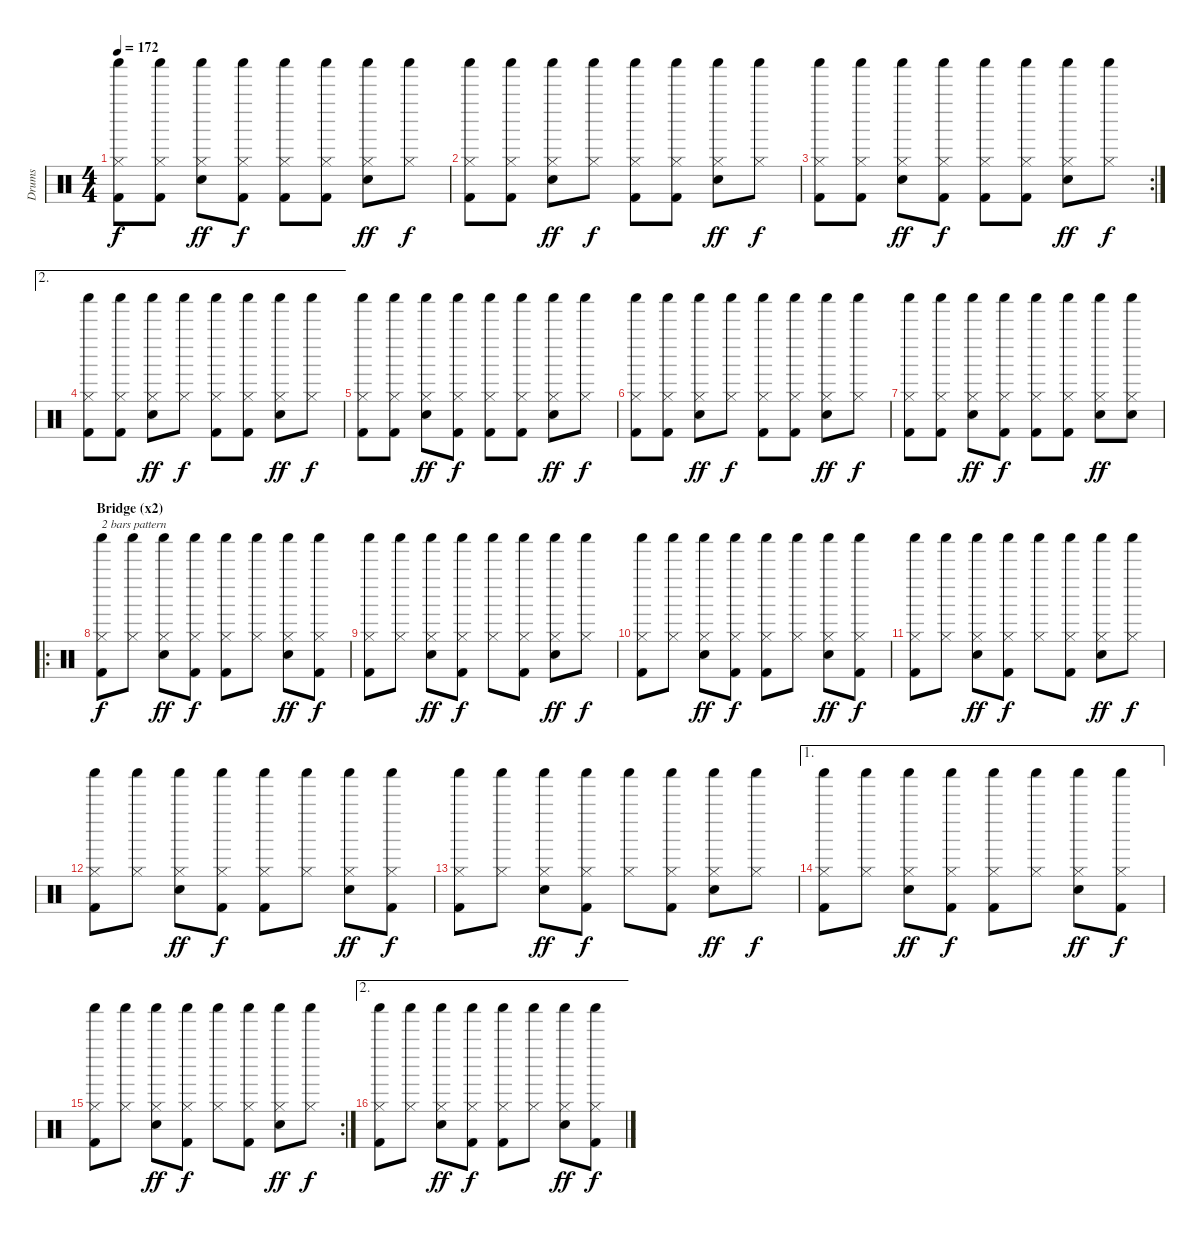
\track ("Drums" "Drums") {instrument percussion}
\staff {score}
\articulation defaults
\ts (4 4)
\tempo 172
\clef neutral
\ks c
("Hi-Hat (closed)" "Shaker (hit)" "Kick (hit) 2").8{dy f} ("Hi-Hat (closed)" "Shaker (hit)" "Kick (hit) 2").8 ("Hi-Hat (closed)" "Shaker (hit)" "Electric Snare (hit)").8{dy ff} ("Hi-Hat (closed)" "Shaker (hit)" "Kick (hit) 2").8{dy f} ("Hi-Hat (closed)" "Shaker (hit)" "Kick (hit) 2").8 ("Hi-Hat (closed)" "Shaker (hit)" "Kick (hit) 2").8 ("Hi-Hat (closed)" "Shaker (hit)" "Electric Snare (hit)").8{dy ff} ("Hi-Hat (closed)" "Shaker (hit)").8{dy f} |
("Hi-Hat (closed)" "Shaker (hit)" "Kick (hit) 2").8 ("Hi-Hat (closed)" "Shaker (hit)" "Kick (hit) 2").8 ("Hi-Hat (closed)" "Shaker (hit)" "Electric Snare (hit)").8{dy ff} ("Hi-Hat (closed)" "Shaker (hit)").8{dy f} ("Hi-Hat (closed)" "Shaker (hit)" "Kick (hit) 2").8 ("Hi-Hat (closed)" "Shaker (hit)" "Kick (hit) 2").8 ("Hi-Hat (closed)" "Shaker (hit)" "Electric Snare (hit)").8{dy ff} ("Hi-Hat (closed)" "Shaker (hit)").8{dy f} |
\rc 2
("Hi-Hat (closed)" "Shaker (hit)" "Kick (hit) 2").8 ("Hi-Hat (closed)" "Shaker (hit)" "Kick (hit) 2").8 ("Hi-Hat (closed)" "Shaker (hit)" "Electric Snare (hit)").8{dy ff} ("Hi-Hat (closed)" "Shaker (hit)" "Kick (hit) 2").8{dy f} ("Hi-Hat (closed)" "Shaker (hit)" "Kick (hit) 2").8 ("Hi-Hat (closed)" "Shaker (hit)" "Kick (hit) 2").8 ("Hi-Hat (closed)" "Shaker (hit)" "Electric Snare (hit)").8{dy ff} ("Hi-Hat (closed)" "Shaker (hit)").8{dy f} |
\ae 2
("Hi-Hat (closed)" "Shaker (hit)" "Kick (hit) 2").8 ("Hi-Hat (closed)" "Shaker (hit)" "Kick (hit) 2").8 ("Hi-Hat (closed)" "Shaker (hit)" "Electric Snare (hit)").8{dy ff} ("Hi-Hat (closed)" "Shaker (hit)").8{dy f} ("Hi-Hat (closed)" "Shaker (hit)" "Kick (hit) 2").8 ("Hi-Hat (closed)" "Shaker (hit)" "Kick (hit) 2").8 ("Hi-Hat (closed)" "Shaker (hit)" "Electric Snare (hit)").8{dy ff} ("Hi-Hat (closed)" "Shaker (hit)").8{dy f} |
("Hi-Hat (closed)" "Shaker (hit)" "Kick (hit) 2").8 ("Hi-Hat (closed)" "Shaker (hit)" "Kick (hit) 2").8 ("Hi-Hat (closed)" "Shaker (hit)" "Electric Snare (hit)").8{dy ff} ("Hi-Hat (closed)" "Shaker (hit)" "Kick (hit) 2").8{dy f} ("Hi-Hat (closed)" "Shaker (hit)" "Kick (hit) 2").8 ("Hi-Hat (closed)" "Shaker (hit)" "Kick (hit) 2").8 ("Hi-Hat (closed)" "Shaker (hit)" "Electric Snare (hit)").8{dy ff} ("Hi-Hat (closed)" "Shaker (hit)").8{dy f} |
("Hi-Hat (closed)" "Shaker (hit)" "Kick (hit) 2").8 ("Hi-Hat (closed)" "Shaker (hit)" "Kick (hit) 2").8 ("Hi-Hat (closed)" "Shaker (hit)" "Electric Snare (hit)").8{dy ff} ("Hi-Hat (closed)" "Shaker (hit)").8{dy f} ("Hi-Hat (closed)" "Shaker (hit)" "Kick (hit) 2").8 ("Hi-Hat (closed)" "Shaker (hit)" "Kick (hit) 2").8 ("Hi-Hat (closed)" "Shaker (hit)" "Electric Snare (hit)").8{dy ff} ("Hi-Hat (closed)" "Shaker (hit)").8{dy f} |
("Hi-Hat (closed)" "Shaker (hit)" "Kick (hit) 2").8 ("Hi-Hat (closed)" "Shaker (hit)" "Kick (hit) 2").8 ("Hi-Hat (closed)" "Shaker (hit)" "Electric Snare (hit)").8{dy ff} ("Hi-Hat (closed)" "Shaker (hit)" "Kick (hit) 2").8{dy f} ("Hi-Hat (closed)" "Shaker (hit)" "Kick (hit) 2").8 ("Hi-Hat (closed)" "Shaker (hit)" "Kick (hit) 2").8 ("Hi-Hat (closed)" "Shaker (hit)" "Electric Snare (hit)").8{dy ff} ("Hi-Hat (closed)" "Shaker (hit)" "Electric Snare (hit)").8 |
\ro
\section ("" "Bridge (x2)")
("Hi-Hat (closed)" "Shaker (hit)" "Kick (hit) 2").8{txt "2 bars pattern" dy f} ("Hi-Hat (closed)" "Shaker (hit)").8 ("Hi-Hat (closed)" "Shaker (hit)" "Electric Snare (hit)").8{dy ff} ("Hi-Hat (closed)" "Shaker (hit)" "Kick (hit) 2").8{dy f} ("Hi-Hat (closed)" "Shaker (hit)" "Kick (hit) 2").8 ("Hi-Hat (closed)" "Shaker (hit)").8 ("Hi-Hat (closed)" "Shaker (hit)" "Electric Snare (hit)").8{dy ff} ("Hi-Hat (closed)" "Shaker (hit)" "Kick (hit) 2").8{dy f} |
("Hi-Hat (closed)" "Shaker (hit)" "Kick (hit) 2").8 ("Hi-Hat (closed)" "Shaker (hit)").8 ("Hi-Hat (closed)" "Shaker (hit)" "Electric Snare (hit)").8{dy ff} ("Hi-Hat (closed)" "Shaker (hit)" "Kick (hit) 2").8{dy f} ("Hi-Hat (closed)" "Shaker (hit)").8 ("Hi-Hat (closed)" "Shaker (hit)" "Kick (hit) 2").8 ("Hi-Hat (closed)" "Shaker (hit)" "Electric Snare (hit)").8{dy ff} ("Hi-Hat (closed)" "Shaker (hit)").8{dy f} |
("Hi-Hat (closed)" "Shaker (hit)" "Kick (hit) 2").8 ("Hi-Hat (closed)" "Shaker (hit)").8 ("Hi-Hat (closed)" "Shaker (hit)" "Electric Snare (hit)").8{dy ff} ("Hi-Hat (closed)" "Shaker (hit)" "Kick (hit) 2").8{dy f} ("Hi-Hat (closed)" "Shaker (hit)" "Kick (hit) 2").8 ("Hi-Hat (closed)" "Shaker (hit)").8 ("Hi-Hat (closed)" "Shaker (hit)" "Electric Snare (hit)").8{dy ff} ("Hi-Hat (closed)" "Shaker (hit)" "Kick (hit) 2").8{dy f} |
("Hi-Hat (closed)" "Shaker (hit)" "Kick (hit) 2").8 ("Hi-Hat (closed)" "Shaker (hit)").8 ("Hi-Hat (closed)" "Shaker (hit)" "Electric Snare (hit)").8{dy ff} ("Hi-Hat (closed)" "Shaker (hit)" "Kick (hit) 2").8{dy f} ("Hi-Hat (closed)" "Shaker (hit)").8 ("Hi-Hat (closed)" "Shaker (hit)" "Kick (hit) 2").8 ("Hi-Hat (closed)" "Shaker (hit)" "Electric Snare (hit)").8{dy ff} ("Hi-Hat (closed)" "Shaker (hit)").8{dy f} |
("Hi-Hat (closed)" "Shaker (hit)" "Kick (hit) 2").8 ("Hi-Hat (closed)" "Shaker (hit)").8 ("Hi-Hat (closed)" "Shaker (hit)" "Electric Snare (hit)").8{dy ff} ("Hi-Hat (closed)" "Shaker (hit)" "Kick (hit) 2").8{dy f} ("Hi-Hat (closed)" "Shaker (hit)" "Kick (hit) 2").8 ("Hi-Hat (closed)" "Shaker (hit)").8 ("Hi-Hat (closed)" "Shaker (hit)" "Electric Snare (hit)").8{dy ff} ("Hi-Hat (closed)" "Shaker (hit)" "Kick (hit) 2").8{dy f} |
("Hi-Hat (closed)" "Shaker (hit)" "Kick (hit) 2").8 ("Hi-Hat (closed)" "Shaker (hit)").8 ("Hi-Hat (closed)" "Shaker (hit)" "Electric Snare (hit)").8{dy ff} ("Hi-Hat (closed)" "Shaker (hit)" "Kick (hit) 2").8{dy f} ("Hi-Hat (closed)" "Shaker (hit)").8 ("Hi-Hat (closed)" "Shaker (hit)" "Kick (hit) 2").8 ("Hi-Hat (closed)" "Shaker (hit)" "Electric Snare (hit)").8{dy ff} ("Hi-Hat (closed)" "Shaker (hit)").8{dy f} |
\ae 1
("Hi-Hat (closed)" "Shaker (hit)" "Kick (hit) 2").8 ("Hi-Hat (closed)" "Shaker (hit)").8 ("Hi-Hat (closed)" "Shaker (hit)" "Electric Snare (hit)").8{dy ff} ("Hi-Hat (closed)" "Shaker (hit)" "Kick (hit) 2").8{dy f} ("Hi-Hat (closed)" "Shaker (hit)" "Kick (hit) 2").8 ("Hi-Hat (closed)" "Shaker (hit)").8 ("Hi-Hat (closed)" "Shaker (hit)" "Electric Snare (hit)").8{dy ff} ("Hi-Hat (closed)" "Shaker (hit)" "Kick (hit) 2").8{dy f} |
\rc 2
("Hi-Hat (closed)" "Shaker (hit)" "Kick (hit) 2").8 ("Hi-Hat (closed)" "Shaker (hit)").8 ("Hi-Hat (closed)" "Shaker (hit)" "Electric Snare (hit)").8{dy ff} ("Hi-Hat (closed)" "Shaker (hit)" "Kick (hit) 2").8{dy f} ("Hi-Hat (closed)" "Shaker (hit)").8 ("Hi-Hat (closed)" "Shaker (hit)" "Kick (hit) 2").8 ("Hi-Hat (closed)" "Shaker (hit)" "Electric Snare (hit)").8{dy ff} ("Hi-Hat (closed)" "Shaker (hit)").8{dy f} |
\ae 2
("Hi-Hat (closed)" "Shaker (hit)" "Kick (hit) 2").8 ("Hi-Hat (closed)" "Shaker (hit)").8 ("Hi-Hat (closed)" "Shaker (hit)" "Electric Snare (hit)").8{dy ff} ("Hi-Hat (closed)" "Shaker (hit)" "Kick (hit) 2").8{dy f} ("Hi-Hat (closed)" "Shaker (hit)" "Kick (hit) 2").8 ("Hi-Hat (closed)" "Shaker (hit)").8 ("Hi-Hat (closed)" "Shaker (hit)" "Electric Snare (hit)").8{dy ff} ("Hi-Hat (closed)" "Shaker (hit)" "Kick (hit) 2").8{dy f}
